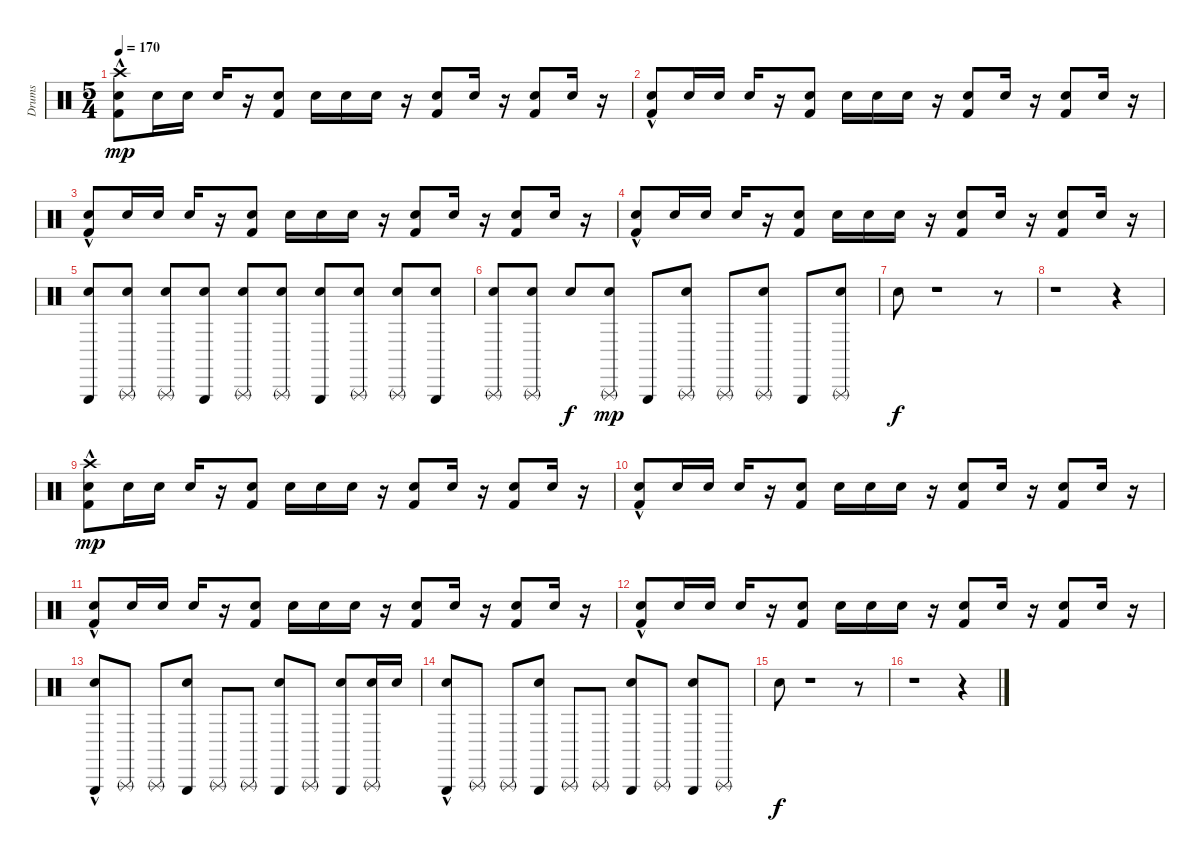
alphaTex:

\track ("Drums" "Drums") {instrument percussion}
\staff {score}
\articulation defaults
\ts (5 4)
\tempo 170
\clef neutral
\ks c
("Metronome (bell)" "Kick (hit) 2"{hac} "Crash high (hit)").8{dy mp} "Metronome (bell)".16 "Metronome (bell)".16 "Metronome (bell)".16 r.16 ("Metronome (bell)" "Kick (hit) 2").8 "Metronome (bell)".16 "Metronome (bell)".16 "Metronome (bell)".16 r.16 ("Metronome (bell)" "Kick (hit) 2").8 "Metronome (bell)".16 r.16 ("Metronome (bell)" "Kick (hit) 2").8 "Metronome (bell)".16 r.16 |
("Kick (hit) 2"{hac} "Metronome (bell)").8 "Metronome (bell)".16 "Metronome (bell)".16 "Metronome (bell)".16 r.16 ("Metronome (bell)" "Kick (hit) 2").8 "Metronome (bell)".16 "Metronome (bell)".16 "Metronome (bell)".16 r.16 ("Metronome (bell)" "Kick (hit) 2").8 "Metronome (bell)".16 r.16 ("Metronome (bell)" "Kick (hit) 2").8 "Metronome (bell)".16 r.16 |
("Kick (hit) 2"{hac} "Metronome (bell)").8 "Metronome (bell)".16 "Metronome (bell)".16 "Metronome (bell)".16 r.16 ("Metronome (bell)" "Kick (hit) 2").8 "Metronome (bell)".16 "Metronome (bell)".16 "Metronome (bell)".16 r.16 ("Metronome (bell)" "Kick (hit) 2").8 "Metronome (bell)".16 r.16 ("Metronome (bell)" "Kick (hit) 2").8 "Metronome (bell)".16 r.16 |
("Kick (hit) 2"{hac} "Metronome (bell)").8 "Metronome (bell)".16 "Metronome (bell)".16 "Metronome (bell)".16 r.16 ("Metronome (bell)" "Kick (hit) 2").8 "Metronome (bell)".16 "Metronome (bell)".16 "Metronome (bell)".16 r.16 ("Kick (hit) 2" "Metronome (bell)").8 "Metronome (bell)".16 r.16 ("Metronome (bell)" "Kick (hit) 2").8 "Metronome (bell)".16 r.16 |
("Electric Snare (hit)" "Triangle (hit)").8 ("Electric Snare (hit)" "Triangle (rnute)").8 ("Electric Snare (hit)" "Triangle (rnute)").8 ("Electric Snare (hit)" "Triangle (hit)").8 ("Electric Snare (hit)" "Triangle (rnute)").8 ("Electric Snare (hit)" "Triangle (rnute)").8 ("Electric Snare (hit)" "Triangle (hit)").8 ("Electric Snare (hit)" "Triangle (rnute)").8 ("Electric Snare (hit)" "Triangle (rnute)").8 ("Electric Snare (hit)" "Triangle (hit)").8 |
("Electric Snare (hit)" "Triangle (rnute)").8 ("Electric Snare (hit)" "Triangle (rnute)").8 "Electric Snare (hit)".8{dy f} ("Electric Snare (hit)" "Triangle (rnute)").8{dy mp} "Triangle (hit)".8 ("Electric Snare (hit)" "Triangle (rnute)").8 "Triangle (rnute)".8 ("Electric Snare (hit)" "Triangle (rnute)").8 "Triangle (hit)".8 ("Electric Snare (hit)" "Triangle (rnute)").8 |
"Electric Snare (hit)".8{dy f} r.1 r.8 |
r.1 r.4 |
("Metronome (bell)" "Kick (hit) 2"{hac} "Crash high (hit)").8{dy mp} "Metronome (bell)".16 "Metronome (bell)".16 "Metronome (bell)".16 r.16 ("Metronome (bell)" "Kick (hit) 2").8 "Metronome (bell)".16 "Metronome (bell)".16 "Metronome (bell)".16 r.16 ("Metronome (bell)" "Kick (hit) 2").8 "Metronome (bell)".16 r.16 ("Metronome (bell)" "Kick (hit) 2").8 "Metronome (bell)".16 r.16 |
("Kick (hit) 2"{hac} "Metronome (bell)").8 "Metronome (bell)".16 "Metronome (bell)".16 "Metronome (bell)".16 r.16 ("Metronome (bell)" "Kick (hit) 2").8 "Metronome (bell)".16 "Metronome (bell)".16 "Metronome (bell)".16 r.16 ("Metronome (bell)" "Kick (hit) 2").8 "Metronome (bell)".16 r.16 ("Metronome (bell)" "Kick (hit) 2").8 "Metronome (bell)".16 r.16 |
("Kick (hit) 2"{hac} "Metronome (bell)").8 "Metronome (bell)".16 "Metronome (bell)".16 "Metronome (bell)".16 r.16 ("Metronome (bell)" "Kick (hit) 2").8 "Metronome (bell)".16 "Metronome (bell)".16 "Metronome (bell)".16 r.16 ("Metronome (bell)" "Kick (hit) 2").8 "Metronome (bell)".16 r.16 ("Metronome (bell)" "Kick (hit) 2").8 "Metronome (bell)".16 r.16 |
("Kick (hit) 2"{hac} "Metronome (bell)").8 "Metronome (bell)".16 "Metronome (bell)".16 "Metronome (bell)".16 r.16 ("Metronome (bell)" "Kick (hit) 2").8 "Metronome (bell)".16 "Metronome (bell)".16 "Metronome (bell)".16 r.16 ("Kick (hit) 2" "Metronome (bell)").8 "Metronome (bell)".16 r.16 ("Metronome (bell)" "Kick (hit) 2").8 "Metronome (bell)".16 r.16 |
("Triangle (hit)" "Electric Snare (hit)"{hac}).8 "Triangle (rnute)".8 "Triangle (rnute)".8 ("Triangle (hit)" "Electric Snare (hit)").8 "Triangle (rnute)".8 "Triangle (rnute)".8 ("Triangle (hit)" "Electric Snare (hit)").8 "Triangle (rnute)".8 ("Triangle (hit)" "Electric Snare (hit)").8 ("Triangle (rnute)" "Electric Snare (hit)").16 "Electric Snare (hit)".16 |
("Triangle (hit)" "Electric Snare (hit)"{hac}).8 "Triangle (rnute)".8 "Triangle (rnute)".8 ("Triangle (hit)" "Electric Snare (hit)").8 "Triangle (rnute)".8 "Triangle (rnute)".8 ("Triangle (hit)" "Electric Snare (hit)").8 "Triangle (rnute)".8 ("Triangle (hit)" "Electric Snare (hit)").8 "Triangle (rnute)".8 |
"Electric Snare (hit)".8{dy f} r.1 r.8 |
r.1 r.4
